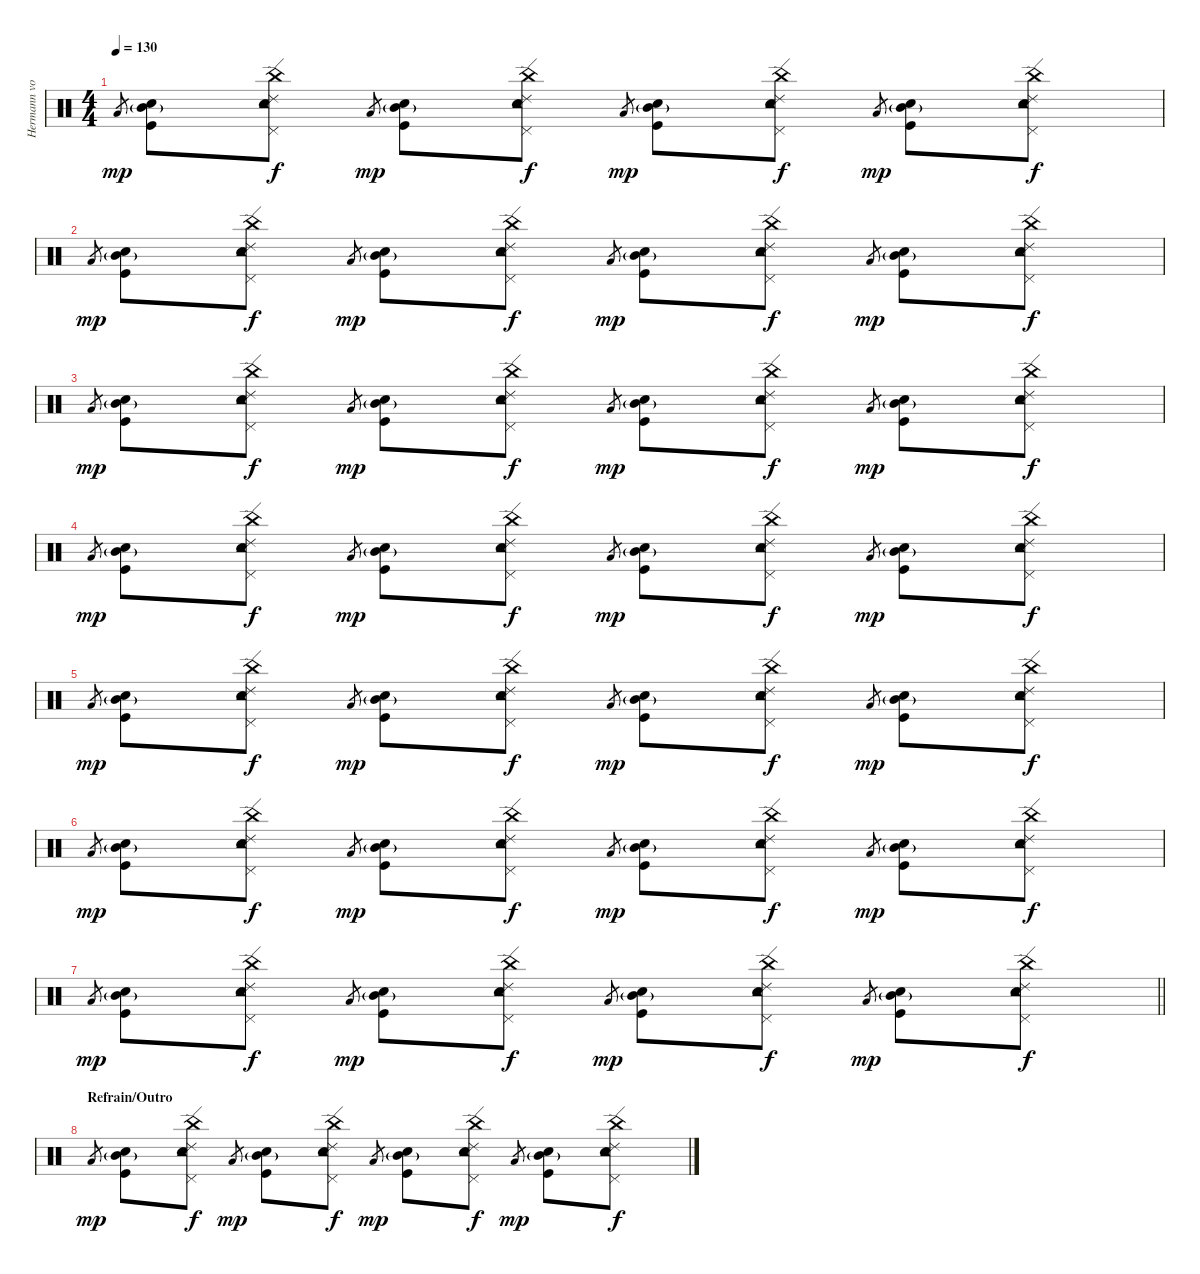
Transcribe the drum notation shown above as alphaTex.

\track ("Hermann von Hinten" "Hermann vo") {instrument percussion}
\staff {score}
\articulation defaults
\ts (4 4)
\tempo 130
\clef neutral
\ks c "Low Tom (hit)".8{gr dy mp}
("Mid Tom (hit)"{g} "Kick (hit)" "Snare (hit) 2").8 ("Tambourine (hit)" "Pedal Hi-Hat (hit)" "China (hit)" "Ride (edge) 2" "Electric Snare (hit)").8{dy f} "Low Tom (hit)".8{gr dy mp} ("Mid Tom (hit)"{g} "Kick (hit)" "Snare (hit) 2").8 ("Tambourine (hit)" "Pedal Hi-Hat (hit)" "China (hit)" "Ride (edge) 2" "Electric Snare (hit)").8{dy f} "Low Tom (hit)".8{gr dy mp} ("Mid Tom (hit)"{g} "Kick (hit)" "Snare (hit) 2").8 ("Tambourine (hit)" "Pedal Hi-Hat (hit)" "China (hit)" "Ride (edge) 2" "Electric Snare (hit)").8{dy f} "Low Tom (hit)".8{gr dy mp} ("Mid Tom (hit)"{g} "Kick (hit)" "Snare (hit) 2").8 ("Tambourine (hit)" "Pedal Hi-Hat (hit)" "China (hit)" "Ride (edge) 2" "Electric Snare (hit)").8{dy f} |
"Low Tom (hit)".8{gr dy mp} ("Mid Tom (hit)"{g} "Kick (hit)" "Snare (hit) 2").8 ("Tambourine (hit)" "Pedal Hi-Hat (hit)" "China (hit)" "Ride (edge) 2" "Electric Snare (hit)").8{dy f} "Low Tom (hit)".8{gr dy mp} ("Mid Tom (hit)"{g} "Kick (hit)" "Snare (hit) 2").8 ("Tambourine (hit)" "Pedal Hi-Hat (hit)" "China (hit)" "Ride (edge) 2" "Electric Snare (hit)").8{dy f} "Low Tom (hit)".8{gr dy mp} ("Mid Tom (hit)"{g} "Kick (hit)" "Snare (hit) 2").8 ("Tambourine (hit)" "Pedal Hi-Hat (hit)" "China (hit)" "Ride (edge) 2" "Electric Snare (hit)").8{dy f} "Low Tom (hit)".8{gr dy mp} ("Mid Tom (hit)"{g} "Kick (hit)" "Snare (hit) 2").8 ("Tambourine (hit)" "Pedal Hi-Hat (hit)" "China (hit)" "Ride (edge) 2" "Electric Snare (hit)").8{dy f} |
"Low Tom (hit)".8{gr dy mp} ("Mid Tom (hit)"{g} "Kick (hit)" "Snare (hit) 2").8 ("Tambourine (hit)" "Pedal Hi-Hat (hit)" "China (hit)" "Ride (edge) 2" "Electric Snare (hit)").8{dy f} "Low Tom (hit)".8{gr dy mp} ("Mid Tom (hit)"{g} "Kick (hit)" "Snare (hit) 2").8 ("Tambourine (hit)" "Pedal Hi-Hat (hit)" "China (hit)" "Ride (edge) 2" "Electric Snare (hit)").8{dy f} "Low Tom (hit)".8{gr dy mp} ("Mid Tom (hit)"{g} "Kick (hit)" "Snare (hit) 2").8 ("Tambourine (hit)" "Pedal Hi-Hat (hit)" "China (hit)" "Ride (edge) 2" "Electric Snare (hit)").8{dy f} "Low Tom (hit)".8{gr dy mp} ("Mid Tom (hit)"{g} "Kick (hit)" "Snare (hit) 2").8 ("Tambourine (hit)" "Pedal Hi-Hat (hit)" "China (hit)" "Ride (edge) 2" "Electric Snare (hit)").8{dy f} |
"Low Tom (hit)".8{gr dy mp} ("Mid Tom (hit)"{g} "Kick (hit)" "Snare (hit) 2").8 ("Tambourine (hit)" "Pedal Hi-Hat (hit)" "China (hit)" "Ride (edge) 2" "Electric Snare (hit)").8{dy f} "Low Tom (hit)".8{gr dy mp} ("Mid Tom (hit)"{g} "Kick (hit)" "Snare (hit) 2").8 ("Tambourine (hit)" "Pedal Hi-Hat (hit)" "China (hit)" "Ride (edge) 2" "Electric Snare (hit)").8{dy f} "Low Tom (hit)".8{gr dy mp} ("Mid Tom (hit)"{g} "Kick (hit)" "Snare (hit) 2").8 ("Tambourine (hit)" "Pedal Hi-Hat (hit)" "China (hit)" "Ride (edge) 2" "Electric Snare (hit)").8{dy f} "Low Tom (hit)".8{gr dy mp} ("Mid Tom (hit)"{g} "Kick (hit)" "Snare (hit) 2").8 ("Tambourine (hit)" "Pedal Hi-Hat (hit)" "China (hit)" "Ride (edge) 2" "Electric Snare (hit)").8{dy f} |
"Low Tom (hit)".8{gr dy mp} ("Mid Tom (hit)"{g} "Kick (hit)" "Snare (hit) 2").8 ("Tambourine (hit)" "Pedal Hi-Hat (hit)" "China (hit)" "Ride (edge) 2" "Electric Snare (hit)").8{dy f} "Low Tom (hit)".8{gr dy mp} ("Mid Tom (hit)"{g} "Kick (hit)" "Snare (hit) 2").8 ("Tambourine (hit)" "Pedal Hi-Hat (hit)" "China (hit)" "Ride (edge) 2" "Electric Snare (hit)").8{dy f} "Low Tom (hit)".8{gr dy mp} ("Mid Tom (hit)"{g} "Kick (hit)" "Snare (hit) 2").8 ("Tambourine (hit)" "Pedal Hi-Hat (hit)" "China (hit)" "Ride (edge) 2" "Electric Snare (hit)").8{dy f} "Low Tom (hit)".8{gr dy mp} ("Mid Tom (hit)"{g} "Kick (hit)" "Snare (hit) 2").8 ("Tambourine (hit)" "Pedal Hi-Hat (hit)" "China (hit)" "Ride (edge) 2" "Electric Snare (hit)").8{dy f} |
"Low Tom (hit)".8{gr dy mp} ("Mid Tom (hit)"{g} "Kick (hit)" "Snare (hit) 2").8 ("Tambourine (hit)" "Pedal Hi-Hat (hit)" "China (hit)" "Ride (edge) 2" "Electric Snare (hit)").8{dy f} "Low Tom (hit)".8{gr dy mp} ("Mid Tom (hit)"{g} "Kick (hit)" "Snare (hit) 2").8 ("Tambourine (hit)" "Pedal Hi-Hat (hit)" "China (hit)" "Ride (edge) 2" "Electric Snare (hit)").8{dy f} "Low Tom (hit)".8{gr dy mp} ("Mid Tom (hit)"{g} "Kick (hit)" "Snare (hit) 2").8 ("Tambourine (hit)" "Pedal Hi-Hat (hit)" "China (hit)" "Ride (edge) 2" "Electric Snare (hit)").8{dy f} "Low Tom (hit)".8{gr dy mp} ("Mid Tom (hit)"{g} "Kick (hit)" "Snare (hit) 2").8 ("Tambourine (hit)" "Pedal Hi-Hat (hit)" "China (hit)" "Ride (edge) 2" "Electric Snare (hit)").8{dy f} |
\barLineRight lightlight "Low Tom (hit)".8{gr dy mp}
("Mid Tom (hit)"{g} "Kick (hit)" "Snare (hit) 2").8 ("Tambourine (hit)" "Pedal Hi-Hat (hit)" "China (hit)" "Ride (edge) 2" "Electric Snare (hit)").8{dy f} "Low Tom (hit)".8{gr dy mp} ("Mid Tom (hit)"{g} "Kick (hit)" "Snare (hit) 2").8 ("Tambourine (hit)" "Pedal Hi-Hat (hit)" "China (hit)" "Ride (edge) 2" "Electric Snare (hit)").8{dy f} "Low Tom (hit)".8{gr dy mp} ("Mid Tom (hit)"{g} "Kick (hit)" "Snare (hit) 2").8 ("Tambourine (hit)" "Pedal Hi-Hat (hit)" "China (hit)" "Ride (edge) 2" "Electric Snare (hit)").8{dy f} "Low Tom (hit)".8{gr dy mp} ("Mid Tom (hit)"{g} "Kick (hit)" "Snare (hit) 2").8 ("Tambourine (hit)" "Pedal Hi-Hat (hit)" "China (hit)" "Ride (edge) 2" "Electric Snare (hit)").8{dy f} |
\section ("" "Refrain/Outro")
"Low Tom (hit)".8{gr dy mp} ("Mid Tom (hit)"{g} "Kick (hit)" "Snare (hit) 2").8 ("Tambourine (hit)" "Pedal Hi-Hat (hit)" "China (hit)" "Ride (edge) 2" "Electric Snare (hit)").8{dy f} "Low Tom (hit)".8{gr dy mp} ("Mid Tom (hit)"{g} "Kick (hit)" "Snare (hit) 2").8 ("Tambourine (hit)" "Pedal Hi-Hat (hit)" "China (hit)" "Ride (edge) 2" "Electric Snare (hit)").8{dy f} "Low Tom (hit)".8{gr dy mp} ("Mid Tom (hit)"{g} "Kick (hit)" "Snare (hit) 2").8 ("Tambourine (hit)" "Pedal Hi-Hat (hit)" "China (hit)" "Ride (edge) 2" "Electric Snare (hit)").8{dy f} "Low Tom (hit)".8{gr dy mp} ("Mid Tom (hit)"{g} "Kick (hit)" "Snare (hit) 2").8 ("Tambourine (hit)" "Pedal Hi-Hat (hit)" "China (hit)" "Ride (edge) 2" "Electric Snare (hit)").8{dy f}
